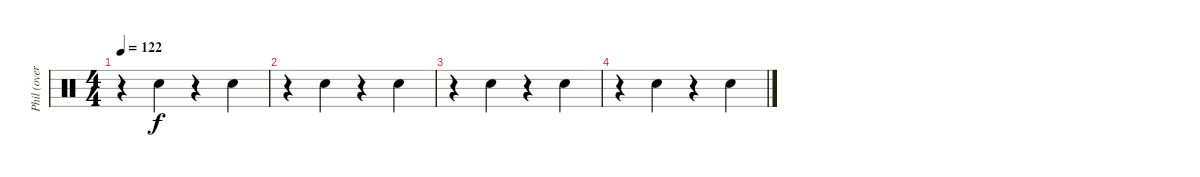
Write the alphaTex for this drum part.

\track ("Phil (overdub)" "Phil (over") {instrument percussion}
\staff {score}
\articulation defaults
\ts (4 4)
\tempo 122
\clef neutral
\ks c
r.4{dy f} "Electric Snare (hit)".4{balance 16} r.4 "Electric Snare (hit)".4{balance 16} |
r.4 "Electric Snare (hit)".4{balance 16} r.4 "Electric Snare (hit)".4{balance 16} |
r.4 "Electric Snare (hit)".4{balance 16} r.4 "Electric Snare (hit)".4{balance 16} |
r.4 "Electric Snare (hit)".4{balance 16} r.4 "Electric Snare (hit)".4{balance 16}
